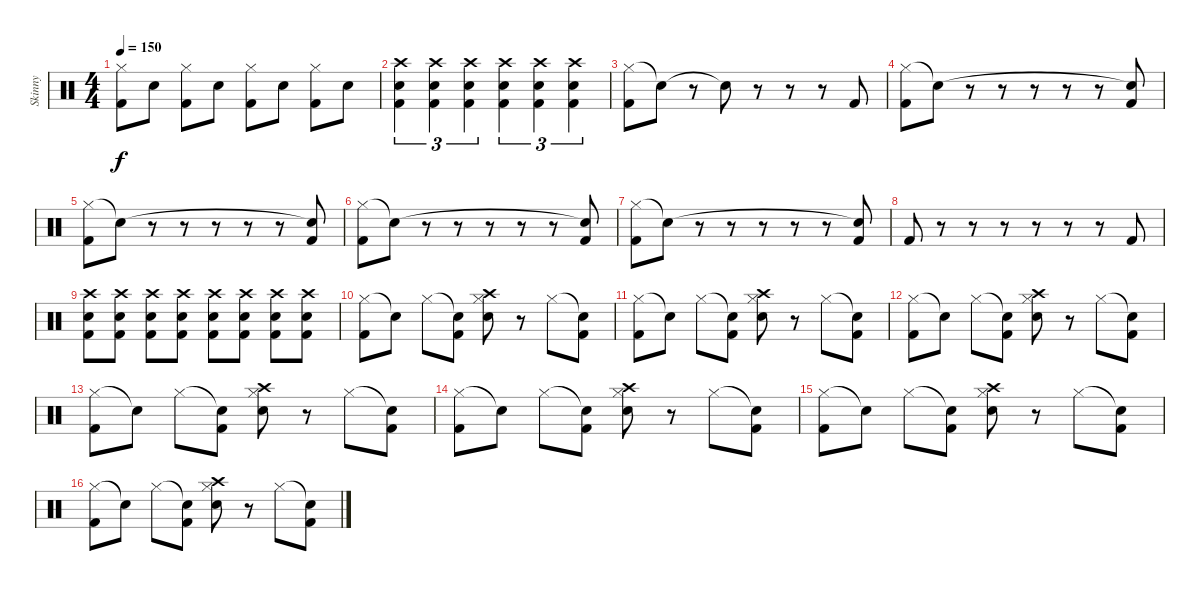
\track ("Skinny" "Skinny") {instrument percussion}
\staff {score}
\articulation defaults
\ts (4 4)
\tempo 150
\clef neutral
\ks c
("Hi-Hat (closed)" "Kick (hit) 2").8{dy f} "Electric Snare (hit)".8 ("Hi-Hat (closed)" "Kick (hit) 2").8 "Electric Snare (hit)".8 ("Hi-Hat (closed)" "Kick (hit) 2").8 "Electric Snare (hit)".8 ("Hi-Hat (closed)" "Kick (hit) 2").8 "Electric Snare (hit)".8 |
("Crash high (hit)" "Electric Snare (hit)" "Kick (hit) 2").4{tu (3 2)} ("Crash high (hit)" "Electric Snare (hit)" "Kick (hit) 2").4{tu (3 2)} ("Crash high (hit)" "Electric Snare (hit)" "Kick (hit) 2").4{tu (3 2)} ("Crash high (hit)" "Electric Snare (hit)" "Kick (hit) 2").4{tu (3 2)} ("Crash high (hit)" "Electric Snare (hit)" "Kick (hit) 2").4{tu (3 2)} ("Crash high (hit)" "Electric Snare (hit)" "Kick (hit) 2").4{tu (3 2)} |
("Hi-Hat (closed)" "Kick (hit) 2").8 "Snare (hit)"{t}.8 r.8 "Snare (hit)"{t}.8 r.8 r.8 r.8 "Kick (hit) 2".8 |
("Hi-Hat (closed)" "Kick (hit) 2").8 "Snare (hit)"{t}.8 r.8 r.8 r.8 r.8 r.8 ("Snare (hit)"{t} "Kick (hit) 2").8 |
("Hi-Hat (closed)" "Kick (hit) 2").8 "Snare (hit)"{t}.8 r.8 r.8 r.8 r.8 r.8 ("Snare (hit)"{t} "Kick (hit) 2").8 |
("Hi-Hat (closed)" "Kick (hit) 2").8 "Snare (hit)"{t}.8 r.8 r.8 r.8 r.8 r.8 ("Snare (hit)"{t} "Kick (hit) 2").8 |
("Hi-Hat (closed)" "Kick (hit) 2").8 "Snare (hit)"{t}.8 r.8 r.8 r.8 r.8 r.8 ("Snare (hit)"{t} "Kick (hit) 2").8 |
"Kick (hit) 2".8 r.8 r.8 r.8 r.8 r.8 r.8 "Kick (hit) 2".8 |
("Crash high (hit)" "Electric Snare (hit)" "Kick (hit) 2").8 ("Crash high (hit)" "Electric Snare (hit)" "Kick (hit) 2").8 ("Crash high (hit)" "Electric Snare (hit)" "Kick (hit) 2").8 ("Crash high (hit)" "Electric Snare (hit)" "Kick (hit) 2").8 ("Crash high (hit)" "Electric Snare (hit)" "Kick (hit) 2").8 ("Crash high (hit)" "Electric Snare (hit)" "Kick (hit) 2").8 ("Crash high (hit)" "Electric Snare (hit)" "Kick (hit) 2").8 ("Crash high (hit)" "Electric Snare (hit)" "Kick (hit) 2").8 |
("Hi-Hat (closed)" "Kick (hit) 2").8 "Snare (hit)"{t}.8 "Hi-Hat (closed)".8 ("Snare (hit)"{t} "Kick (hit) 2").8 ("Crash high (hit)" "Hi-Hat (closed)" "Electric Snare (hit)").8 r.8 "Hi-Hat (closed)".8 ("Snare (hit)"{t} "Kick (hit) 2").8 |
("Hi-Hat (closed)" "Kick (hit) 2").8 "Snare (hit)"{t}.8 "Hi-Hat (closed)".8 ("Snare (hit)"{t} "Kick (hit) 2").8 ("Crash high (hit)" "Hi-Hat (closed)" "Electric Snare (hit)").8 r.8 "Hi-Hat (closed)".8 ("Snare (hit)"{t} "Kick (hit) 2").8 |
("Hi-Hat (closed)" "Kick (hit) 2").8 "Snare (hit)"{t}.8 "Hi-Hat (closed)".8 ("Snare (hit)"{t} "Kick (hit) 2").8 ("Crash high (hit)" "Hi-Hat (closed)" "Electric Snare (hit)").8 r.8 "Hi-Hat (closed)".8 ("Snare (hit)"{t} "Kick (hit) 2").8 |
("Hi-Hat (closed)" "Kick (hit) 2").8 "Snare (hit)"{t}.8 "Hi-Hat (closed)".8 ("Snare (hit)"{t} "Kick (hit) 2").8 ("Crash high (hit)" "Hi-Hat (closed)" "Electric Snare (hit)").8 r.8 "Hi-Hat (closed)".8 ("Snare (hit)"{t} "Kick (hit) 2").8 |
("Hi-Hat (closed)" "Kick (hit) 2").8 "Snare (hit)"{t}.8 "Hi-Hat (closed)".8 ("Snare (hit)"{t} "Kick (hit) 2").8 ("Crash high (hit)" "Hi-Hat (closed)" "Electric Snare (hit)").8 r.8 "Hi-Hat (closed)".8 ("Snare (hit)"{t} "Kick (hit) 2").8 |
("Hi-Hat (closed)" "Kick (hit) 2").8 "Snare (hit)"{t}.8 "Hi-Hat (closed)".8 ("Snare (hit)"{t} "Kick (hit) 2").8 ("Crash high (hit)" "Hi-Hat (closed)" "Electric Snare (hit)").8 r.8 "Hi-Hat (closed)".8 ("Snare (hit)"{t} "Kick (hit) 2").8 |
("Hi-Hat (closed)" "Kick (hit) 2").8 "Snare (hit)"{t}.8 "Hi-Hat (closed)".8 ("Snare (hit)"{t} "Kick (hit) 2").8 ("Crash high (hit)" "Hi-Hat (closed)" "Electric Snare (hit)").8 r.8 "Hi-Hat (closed)".8 ("Snare (hit)"{t} "Kick (hit) 2").8
